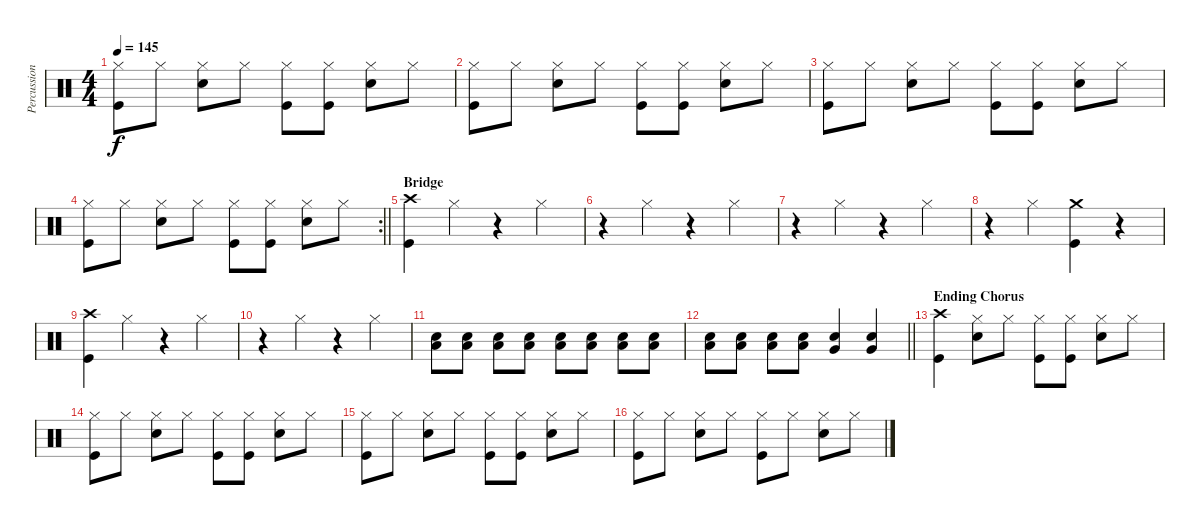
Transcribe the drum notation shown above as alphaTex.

\track ("Percussion" "Percussion") {instrument percussion}
\staff {score}
\articulation defaults
\ts (4 4)
\tempo 145
\clef neutral
\ks c
("Kick (hit)" "Hi-Hat (closed)").8{dy f} "Hi-Hat (closed)".8 ("Hi-Hat (closed)" "Snare (hit) 2").8 "Hi-Hat (closed)".8 ("Kick (hit)" "Hi-Hat (closed)").8 ("Kick (hit)" "Hi-Hat (closed)").8 ("Hi-Hat (closed)" "Snare (hit) 2").8 "Hi-Hat (closed)".8 |
("Kick (hit)" "Hi-Hat (closed)").8 "Hi-Hat (closed)".8 ("Hi-Hat (closed)" "Snare (hit) 2").8 "Hi-Hat (closed)".8 ("Kick (hit)" "Hi-Hat (closed)").8 ("Kick (hit)" "Hi-Hat (closed)").8 ("Hi-Hat (closed)" "Snare (hit) 2").8 "Hi-Hat (closed)".8 |
("Kick (hit)" "Hi-Hat (closed)").8 "Hi-Hat (closed)".8 ("Hi-Hat (closed)" "Snare (hit) 2").8 "Hi-Hat (closed)".8 ("Kick (hit)" "Hi-Hat (closed)").8 ("Kick (hit)" "Hi-Hat (closed)").8 ("Hi-Hat (closed)" "Snare (hit) 2").8 "Hi-Hat (closed)".8 |
\rc 2
\barLineRight lightlight
("Kick (hit)" "Hi-Hat (closed)").8 "Hi-Hat (closed)".8 ("Hi-Hat (closed)" "Snare (hit) 2").8 "Hi-Hat (closed)".8 ("Kick (hit)" "Hi-Hat (closed)").8 ("Kick (hit)" "Hi-Hat (closed)").8 ("Hi-Hat (closed)" "Snare (hit) 2").8 "Hi-Hat (closed)".8 |
\section ("" "Bridge")
("Kick (hit)" "Crash high (hit)").4 "Hi-Hat (closed)".4 r.4 "Hi-Hat (closed)".4 |
r.4 "Hi-Hat (closed)".4 r.4 "Hi-Hat (closed)".4 |
r.4 "Hi-Hat (closed)".4 r.4 "Hi-Hat (closed)".4 |
r.4 "Hi-Hat (closed)".4 ("Crash medium (hit)" "Kick (hit)").4 r.4 |
("Kick (hit)" "Crash high (hit)").4 "Hi-Hat (closed)".4 r.4 "Hi-Hat (closed)".4 |
r.4 "Hi-Hat (closed)".4 r.4 "Hi-Hat (closed)".4 |
("Low Tom (hit)" "Snare (hit) 2").8 ("Low Tom (hit)" "Snare (hit) 2").8 ("Low Tom (hit)" "Snare (hit) 2").8 ("Low Tom (hit)" "Snare (hit) 2").8 ("Low Tom (hit)" "Snare (hit) 2").8 ("Low Tom (hit)" "Snare (hit) 2").8 ("Low Tom (hit)" "Snare (hit) 2").8 ("Low Tom (hit)" "Snare (hit) 2").8 |
\barLineRight lightlight
("Low Tom (hit)" "Snare (hit) 2").8 ("Low Tom (hit)" "Snare (hit) 2").8 ("Low Tom (hit)" "Snare (hit) 2").8 ("Low Tom (hit)" "Snare (hit) 2").8 ("Very Low Tom (hit)" "Snare (hit) 2").4 ("Very Low Tom (hit)" "Snare (hit) 2").4 |
\section ("" "Ending Chorus")
("Kick (hit)" "Crash high (hit)").4 ("Hi-Hat (closed)" "Snare (hit) 2").8 "Hi-Hat (closed)".8 ("Kick (hit)" "Hi-Hat (closed)").8 ("Kick (hit)" "Hi-Hat (closed)").8 ("Hi-Hat (closed)" "Snare (hit) 2").8 "Hi-Hat (closed)".8 |
("Kick (hit)" "Hi-Hat (closed)").8 "Hi-Hat (closed)".8 ("Hi-Hat (closed)" "Snare (hit) 2").8 "Hi-Hat (closed)".8 ("Kick (hit)" "Hi-Hat (closed)").8 ("Kick (hit)" "Hi-Hat (closed)").8 ("Hi-Hat (closed)" "Snare (hit) 2").8 "Hi-Hat (closed)".8 |
("Kick (hit)" "Hi-Hat (closed)").8 "Hi-Hat (closed)".8 ("Hi-Hat (closed)" "Snare (hit) 2").8 "Hi-Hat (closed)".8 ("Kick (hit)" "Hi-Hat (closed)").8 ("Kick (hit)" "Hi-Hat (closed)").8 ("Hi-Hat (closed)" "Snare (hit) 2").8 "Hi-Hat (closed)".8 |
("Kick (hit)" "Hi-Hat (closed)").8 "Hi-Hat (closed)".8 ("Hi-Hat (closed)" "Snare (hit) 2").8 "Hi-Hat (closed)".8 ("Kick (hit)" "Hi-Hat (closed)").8 "Hi-Hat (closed)".8 ("Hi-Hat (closed)" "Snare (hit) 2").8 "Hi-Hat (closed)".8
